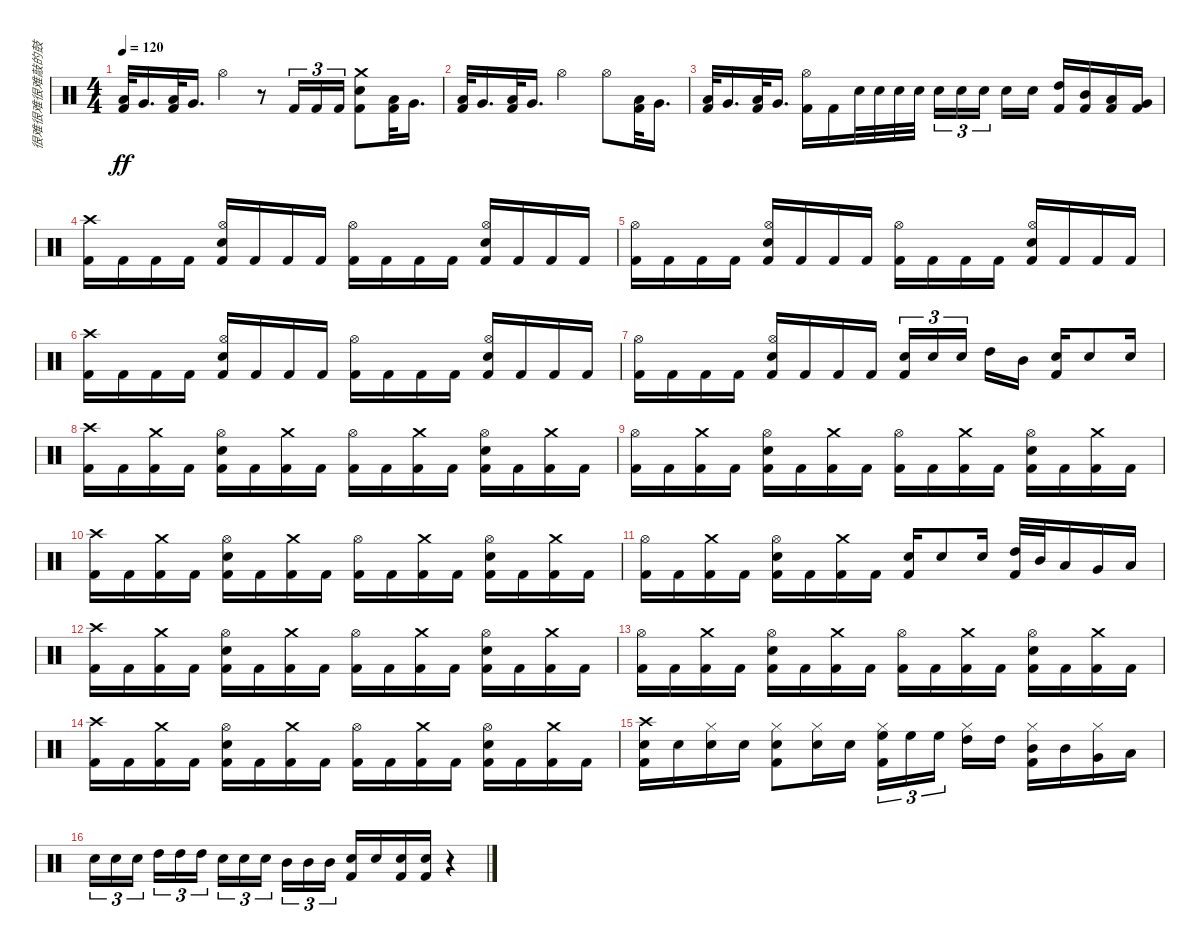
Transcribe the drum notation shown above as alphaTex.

\track ("很难很难很难敲的鼓" "很难很难很难敲的鼓") {instrument percussion}
\staff {score}
\articulation defaults
\ts (4 4)
\tempo 120
\clef neutral
\ks c
("Kick (hit) 2" "Low Floor Tom (hit)").32{dy ff} "Very Low Tom (hit)".16{d} ("Kick (hit) 2" "Low Floor Tom (hit)").32 "Very Low Tom (hit)".16{d} "Hi-Hat (open)".4 r.8 "Kick (hit) 2".16{tu (3 2)} "Kick (hit) 2".16{tu (3 2)} "Kick (hit) 2".16{tu (3 2)} ("Kick (hit) 2" "Electric Snare (hit)" "Crash medium (hit)").8 ("Kick (hit) 2" "Low Floor Tom (hit)").32 "Very Low Tom (hit)".16{d} |
("Kick (hit) 2" "Low Floor Tom (hit)").32 "Very Low Tom (hit)".16{d} ("Kick (hit) 2" "Low Floor Tom (hit)").32 "Very Low Tom (hit)".16{d} "Hi-Hat (open)".2 "Hi-Hat (open)".8 ("Kick (hit) 2" "Low Floor Tom (hit)").32 "Very Low Tom (hit)".16{d} |
("Kick (hit) 2" "Low Floor Tom (hit)").32 "Very Low Tom (hit)".16{d} ("Kick (hit) 2" "Low Floor Tom (hit)").32 "Very Low Tom (hit)".16{d} ("Kick (hit) 2" "Hi-Hat (open)").16 "Kick (hit) 2".16 "Electric Snare (hit)".32 "Electric Snare (hit)".32 "Electric Snare (hit)".32 "Electric Snare (hit)".32 "Electric Snare (hit)".16{tu (3 2)} "Electric Snare (hit)".16{tu (3 2)} "Electric Snare (hit)".16{tu (3 2) beam splitsecondary} "Electric Snare (hit)".16 "Electric Snare (hit)".16 ("Kick (hit) 2" "High Tom (hit)").16 ("Kick (hit) 2" "Mid Tom (hit)").16 ("Kick (hit) 2" "Low Tom (hit)").16 ("Kick (hit) 2" "Very Low Tom (hit)").16 |
("Kick (hit) 2" "Crash high (hit)").16 "Kick (hit) 2".16 "Kick (hit) 2".16 "Kick (hit) 2".16 ("Kick (hit) 2" "Electric Snare (hit)" "Hi-Hat (open)").16 "Kick (hit) 2".16 "Kick (hit) 2".16 "Kick (hit) 2".16 ("Kick (hit) 2" "Hi-Hat (open)").16 "Kick (hit) 2".16 "Kick (hit) 2".16 "Kick (hit) 2".16 ("Kick (hit) 2" "Electric Snare (hit)" "Hi-Hat (open)").16 "Kick (hit) 2".16 "Kick (hit) 2".16 "Kick (hit) 2".16 |
("Kick (hit) 2" "Hi-Hat (open)").16 "Kick (hit) 2".16 "Kick (hit) 2".16 "Kick (hit) 2".16 ("Kick (hit) 2" "Electric Snare (hit)" "Hi-Hat (open)").16 "Kick (hit) 2".16 "Kick (hit) 2".16 "Kick (hit) 2".16 ("Kick (hit) 2" "Hi-Hat (open)").16 "Kick (hit) 2".16 "Kick (hit) 2".16 "Kick (hit) 2".16 ("Kick (hit) 2" "Electric Snare (hit)" "Hi-Hat (open)").16 "Kick (hit) 2".16 "Kick (hit) 2".16 "Kick (hit) 2".16 |
("Kick (hit) 2" "Crash high (hit)").16 "Kick (hit) 2".16 "Kick (hit) 2".16 "Kick (hit) 2".16 ("Kick (hit) 2" "Electric Snare (hit)" "Hi-Hat (open)").16 "Kick (hit) 2".16 "Kick (hit) 2".16 "Kick (hit) 2".16 ("Kick (hit) 2" "Hi-Hat (open)").16 "Kick (hit) 2".16 "Kick (hit) 2".16 "Kick (hit) 2".16 ("Kick (hit) 2" "Electric Snare (hit)" "Hi-Hat (open)").16 "Kick (hit) 2".16 "Kick (hit) 2".16 "Kick (hit) 2".16 |
("Kick (hit) 2" "Hi-Hat (open)").16 "Kick (hit) 2".16 "Kick (hit) 2".16 "Kick (hit) 2".16 ("Kick (hit) 2" "Electric Snare (hit)" "Hi-Hat (open)").16 "Kick (hit) 2".16 "Kick (hit) 2".16 "Kick (hit) 2".16 ("Kick (hit) 2" "Electric Snare (hit)").16{tu (3 2)} "Electric Snare (hit)".16{tu (3 2)} "Electric Snare (hit)".16{tu (3 2) beam splitsecondary} "High Tom (hit)".16 "Mid Tom (hit)".16 ("Kick (hit) 2" "Electric Snare (hit)").16 "Electric Snare (hit)".8 "Electric Snare (hit)".16 |
("Kick (hit) 2" "Crash high (hit)").16 "Kick (hit) 2".16 ("Crash medium (hit)" "Kick (hit) 2").16 "Kick (hit) 2".16 ("Kick (hit) 2" "Electric Snare (hit)" "Hi-Hat (open)").16 "Kick (hit) 2".16 ("Crash medium (hit)" "Kick (hit) 2").16 "Kick (hit) 2".16 ("Kick (hit) 2" "Hi-Hat (open)").16 "Kick (hit) 2".16 ("Crash medium (hit)" "Kick (hit) 2").16 "Kick (hit) 2".16 ("Kick (hit) 2" "Electric Snare (hit)" "Hi-Hat (open)").16 "Kick (hit) 2".16 ("Crash medium (hit)" "Kick (hit) 2").16 "Kick (hit) 2".16 |
("Kick (hit) 2" "Hi-Hat (open)").16 "Kick (hit) 2".16 ("Crash medium (hit)" "Kick (hit) 2").16 "Kick (hit) 2".16 ("Kick (hit) 2" "Electric Snare (hit)" "Hi-Hat (open)").16 "Kick (hit) 2".16 ("Crash medium (hit)" "Kick (hit) 2").16 "Kick (hit) 2".16 ("Kick (hit) 2" "Hi-Hat (open)").16 "Kick (hit) 2".16 ("Crash medium (hit)" "Kick (hit) 2").16 "Kick (hit) 2".16 ("Kick (hit) 2" "Electric Snare (hit)" "Hi-Hat (open)").16 "Kick (hit) 2".16 ("Crash medium (hit)" "Kick (hit) 2").16 "Kick (hit) 2".16 |
("Kick (hit) 2" "Crash high (hit)").16 "Kick (hit) 2".16 ("Crash medium (hit)" "Kick (hit) 2").16 "Kick (hit) 2".16 ("Kick (hit) 2" "Electric Snare (hit)" "Hi-Hat (open)").16 "Kick (hit) 2".16 ("Crash medium (hit)" "Kick (hit) 2").16 "Kick (hit) 2".16 ("Kick (hit) 2" "Hi-Hat (open)").16 "Kick (hit) 2".16 ("Crash medium (hit)" "Kick (hit) 2").16 "Kick (hit) 2".16 ("Kick (hit) 2" "Electric Snare (hit)" "Hi-Hat (open)").16 "Kick (hit) 2".16 ("Crash medium (hit)" "Kick (hit) 2").16 "Kick (hit) 2".16 |
("Kick (hit) 2" "Hi-Hat (open)").16 "Kick (hit) 2".16 ("Crash medium (hit)" "Kick (hit) 2").16 "Kick (hit) 2".16 ("Kick (hit) 2" "Electric Snare (hit)" "Hi-Hat (open)").16 "Kick (hit) 2".16 ("Crash medium (hit)" "Kick (hit) 2").16 "Kick (hit) 2".16 ("Kick (hit) 2" "Electric Snare (hit)").16 "Electric Snare (hit)".8 "Electric Snare (hit)".16 ("Kick (hit) 2" "High Tom (hit)").32 "Mid Tom (hit)".32 "Low Tom (hit)".16 "Very Low Tom (hit)".16 "Low Floor Tom (hit)".16 |
("Kick (hit) 2" "Crash high (hit)").16 "Kick (hit) 2".16 ("Crash medium (hit)" "Kick (hit) 2").16 "Kick (hit) 2".16 ("Kick (hit) 2" "Electric Snare (hit)" "Hi-Hat (open)").16 "Kick (hit) 2".16 ("Crash medium (hit)" "Kick (hit) 2").16 "Kick (hit) 2".16 ("Kick (hit) 2" "Hi-Hat (open)").16 "Kick (hit) 2".16 ("Crash medium (hit)" "Kick (hit) 2").16 "Kick (hit) 2".16 ("Kick (hit) 2" "Electric Snare (hit)" "Hi-Hat (open)").16 "Kick (hit) 2".16 ("Crash medium (hit)" "Kick (hit) 2").16 "Kick (hit) 2".16 |
("Kick (hit) 2" "Hi-Hat (open)").16 "Kick (hit) 2".16 ("Crash medium (hit)" "Kick (hit) 2").16 "Kick (hit) 2".16 ("Kick (hit) 2" "Electric Snare (hit)" "Hi-Hat (open)").16 "Kick (hit) 2".16 ("Crash medium (hit)" "Kick (hit) 2").16 "Kick (hit) 2".16 ("Kick (hit) 2" "Hi-Hat (open)").16 "Kick (hit) 2".16 ("Crash medium (hit)" "Kick (hit) 2").16 "Kick (hit) 2".16 ("Kick (hit) 2" "Electric Snare (hit)" "Hi-Hat (open)").16 "Kick (hit) 2".16 ("Crash medium (hit)" "Kick (hit) 2").16 "Kick (hit) 2".16 |
("Kick (hit) 2" "Crash high (hit)").16 "Kick (hit) 2".16 ("Crash medium (hit)" "Kick (hit) 2").16 "Kick (hit) 2".16 ("Kick (hit) 2" "Electric Snare (hit)" "Hi-Hat (open)").16 "Kick (hit) 2".16 ("Crash medium (hit)" "Kick (hit) 2").16 "Kick (hit) 2".16 ("Kick (hit) 2" "Hi-Hat (open)").16 "Kick (hit) 2".16 ("Crash medium (hit)" "Kick (hit) 2").16 "Kick (hit) 2".16 ("Kick (hit) 2" "Electric Snare (hit)" "Hi-Hat (open)").16 "Kick (hit) 2".16 ("Crash medium (hit)" "Kick (hit) 2").16 "Kick (hit) 2".16 |
("Kick (hit) 2" "Electric Snare (hit)" "Crash high (hit)").16 "Electric Snare (hit)".16 ("Electric Snare (hit)" "Hi-Hat (closed)").16 "Electric Snare (hit)".16 ("Kick (hit) 2" "Electric Snare (hit)" "Hi-Hat (closed)").8 ("Electric Snare (hit)" "Hi-Hat (closed)").16 "Electric Snare (hit)".16 ("Kick (hit) 2" "Hi-Hat (closed)" "High Floor Tom (hit)").16{tu (3 2)} "High Floor Tom (hit)".16{tu (3 2)} "High Floor Tom (hit)".16{tu (3 2) beam splitsecondary} ("Hi-Hat (closed)" "High Tom (hit)").16 "High Tom (hit)".16 ("Kick (hit) 2" "Hi-Hat (closed)" "Mid Tom (hit)").16 "Mid Tom (hit)".16 ("Hi-Hat (closed)" "Very Low Tom (hit)").16 "Low Floor Tom (hit)".16 |
"Electric Snare (hit)".16{tu (3 2)} "Electric Snare (hit)".16{tu (3 2)} "Electric Snare (hit)".16{tu (3 2) beam splitsecondary} "High Tom (hit)".16{tu (3 2)} "High Tom (hit)".16{tu (3 2)} "High Tom (hit)".16{tu (3 2)} "Electric Snare (hit)".16{tu (3 2)} "Electric Snare (hit)".16{tu (3 2)} "Electric Snare (hit)".16{tu (3 2) beam splitsecondary} "Mid Tom (hit)".16{tu (3 2)} "Mid Tom (hit)".16{tu (3 2)} "Mid Tom (hit)".16{tu (3 2)} ("Kick (hit) 2" "Electric Snare (hit)").16 "Electric Snare (hit)".16 ("Kick (hit) 2" "Electric Snare (hit)").16 ("Kick (hit) 2" "Electric Snare (hit)").16 r.4
